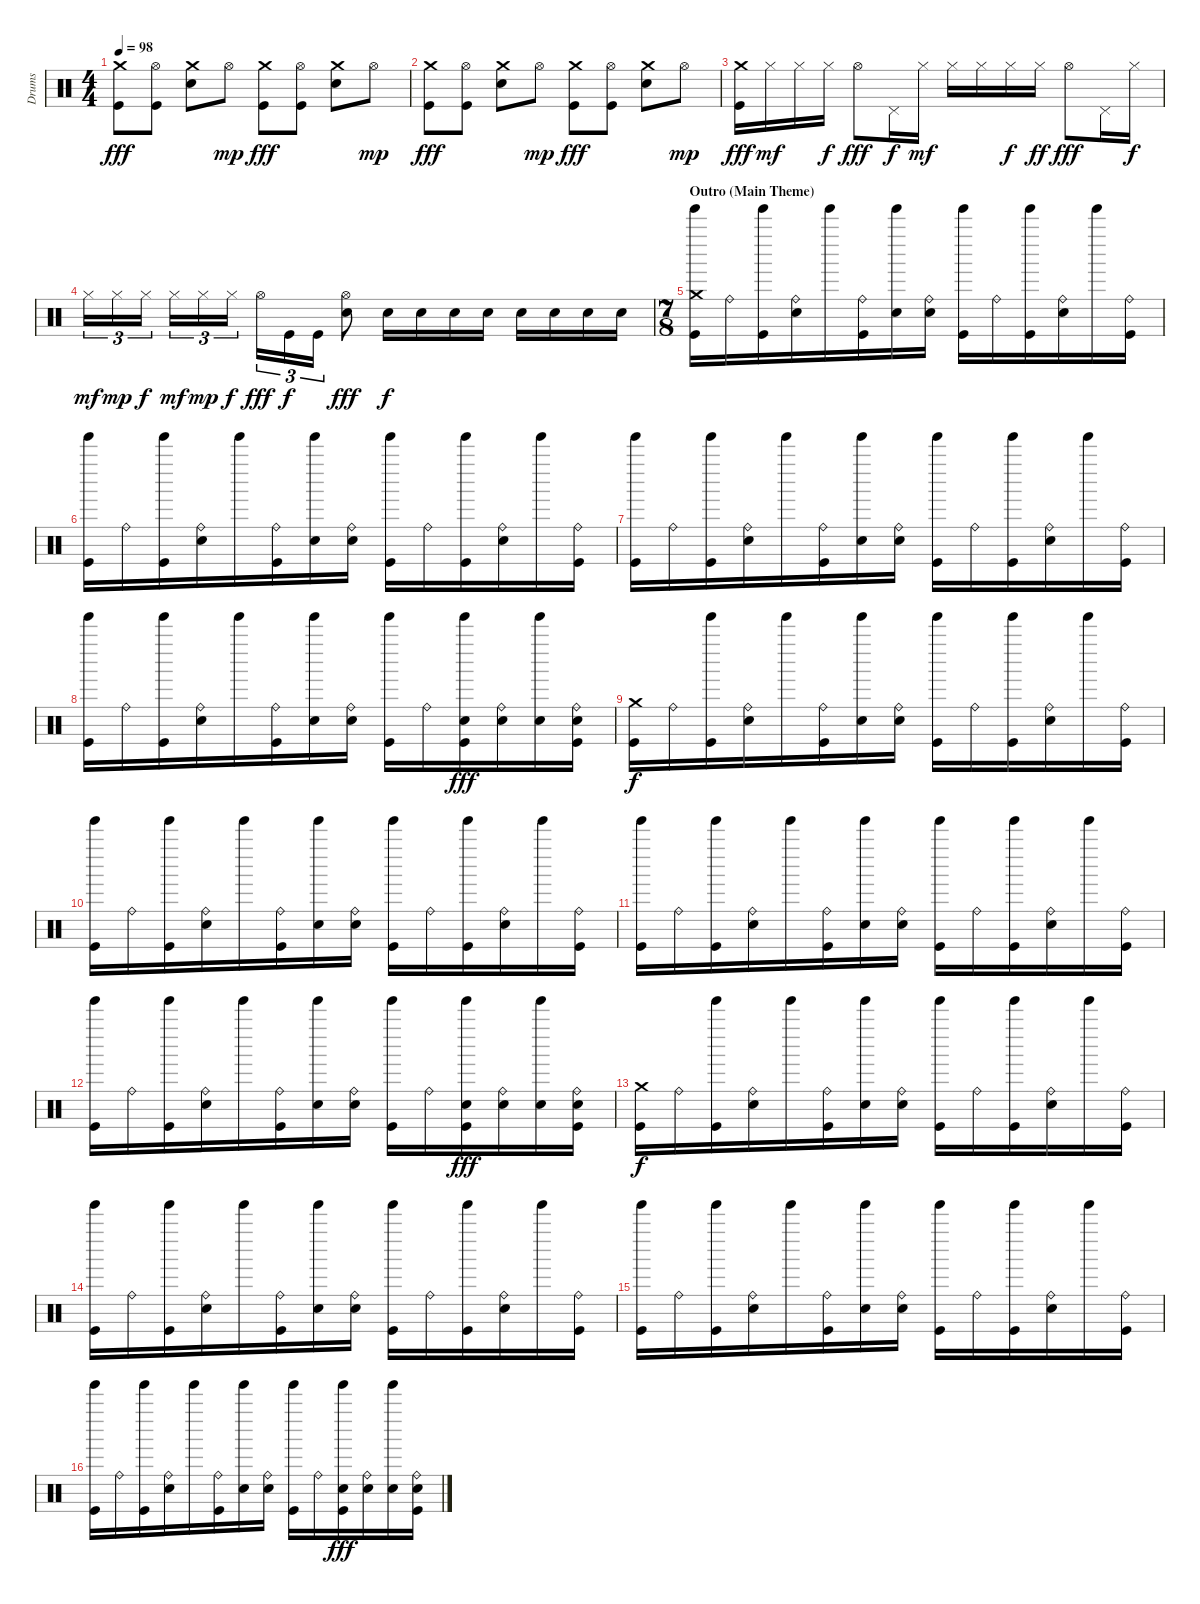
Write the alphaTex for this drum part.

\track ("Drums" "Drums") {instrument percussion}
\staff {score}
\articulation defaults
\ts (4 4)
\tempo 98
\clef neutral
\ks c
("Crash medium (hit)" "Kick (hit)").8{dy fff} ("Hi-Hat (open)" "Kick (hit)").8 ("Crash medium (hit)" "Snare (hit) 2").8 "Hi-Hat (open)".8{dy mp} ("Crash medium (hit)" "Kick (hit)").8{dy fff} ("Hi-Hat (open)" "Kick (hit)").8 ("Crash medium (hit)" "Snare (hit) 2").8 "Hi-Hat (open)".8{dy mp} |
("Crash medium (hit)" "Kick (hit)").8{dy fff} ("Hi-Hat (open)" "Kick (hit)").8 ("Crash medium (hit)" "Snare (hit) 2").8 "Hi-Hat (open)".8{dy mp} ("Crash medium (hit)" "Kick (hit)").8{dy fff} ("Hi-Hat (open)" "Kick (hit)").8 ("Crash medium (hit)" "Snare (hit) 2").8 "Hi-Hat (open)".8{dy mp} |
("Crash medium (hit)" "Kick (hit)").16{dy fff} "Hi-Hat (closed)".16{dy mf} "Hi-Hat (closed)".16 "Hi-Hat (closed)".16{dy f} "Hi-Hat (open)".8{dy fff} "Pedal Hi-Hat (hit)".16{dy f} "Hi-Hat (closed)".16{dy mf} "Hi-Hat (closed)".16 "Hi-Hat (closed)".16 "Hi-Hat (closed)".16{dy f} "Hi-Hat (closed)".16{dy ff} "Hi-Hat (open)".8{dy fff} "Pedal Hi-Hat (hit)".16 "Hi-Hat (closed)".16{dy f} |
"Hi-Hat (closed)".16{tu (3 2) dy mf} "Hi-Hat (closed)".16{tu (3 2) dy mp} "Hi-Hat (closed)".16{tu (3 2) dy f} "Hi-Hat (closed)".16{tu (3 2) dy mf} "Hi-Hat (closed)".16{tu (3 2) dy mp} "Hi-Hat (closed)".16{tu (3 2) dy f} "Hi-Hat (open)".16{tu (3 2) dy fff} "Kick (hit)".16{tu (3 2) dy f} "Kick (hit)".16{tu (3 2)} ("Hi-Hat (open)" "Electric Snare (hit)").8{dy fff} "Electric Snare (hit)".16{dy f} "Electric Snare (hit)".16 "Electric Snare (hit)".16 "Electric Snare (hit)".16 "Electric Snare (hit)".16 "Electric Snare (hit)".16 "Electric Snare (hit)".16 "Electric Snare (hit)".16 |
\ts (7 8)
\section ("" "Outro (Main Theme)")
("Crash medium (hit)" "Tinkle Bell (hit)" "Kick (hit)").16{volume 14} "Ride (bell)".16 ("Tinkle Bell (hit)" "Kick (hit)").16 ("Ride (bell)" "Electric Snare (hit)").16 "Tinkle Bell (hit)".16 ("Ride (bell)" "Kick (hit)").16 ("Tinkle Bell (hit)" "Electric Snare (hit)").16 ("Ride (bell)" "Electric Snare (hit)").16 ("Tinkle Bell (hit)" "Kick (hit)").16 "Ride (bell)".16 ("Tinkle Bell (hit)" "Kick (hit)").16 ("Ride (bell)" "Electric Snare (hit)").16 "Tinkle Bell (hit)".16 ("Ride (bell)" "Kick (hit)").16 |
("Tinkle Bell (hit)" "Kick (hit)").16 "Ride (bell)".16 ("Tinkle Bell (hit)" "Kick (hit)").16 ("Ride (bell)" "Electric Snare (hit)").16 "Tinkle Bell (hit)".16 ("Ride (bell)" "Kick (hit)").16 ("Tinkle Bell (hit)" "Electric Snare (hit)").16 ("Ride (bell)" "Electric Snare (hit)").16 ("Tinkle Bell (hit)" "Kick (hit)").16 "Ride (bell)".16 ("Tinkle Bell (hit)" "Kick (hit)").16 ("Ride (bell)" "Electric Snare (hit)").16 "Tinkle Bell (hit)".16 ("Ride (bell)" "Kick (hit)").16 |
("Tinkle Bell (hit)" "Kick (hit)").16 "Ride (bell)".16 ("Tinkle Bell (hit)" "Kick (hit)").16 ("Ride (bell)" "Electric Snare (hit)").16 "Tinkle Bell (hit)".16 ("Ride (bell)" "Kick (hit)").16 ("Tinkle Bell (hit)" "Electric Snare (hit)").16 ("Ride (bell)" "Electric Snare (hit)").16 ("Tinkle Bell (hit)" "Kick (hit)").16 "Ride (bell)".16 ("Tinkle Bell (hit)" "Kick (hit)").16 ("Ride (bell)" "Electric Snare (hit)").16 "Tinkle Bell (hit)".16 ("Ride (bell)" "Kick (hit)").16 |
("Tinkle Bell (hit)" "Kick (hit)").16 "Ride (bell)".16 ("Tinkle Bell (hit)" "Kick (hit)").16 ("Ride (bell)" "Electric Snare (hit)").16 "Tinkle Bell (hit)".16 ("Ride (bell)" "Kick (hit)").16 ("Tinkle Bell (hit)" "Electric Snare (hit)").16 ("Ride (bell)" "Electric Snare (hit)").16 ("Tinkle Bell (hit)" "Kick (hit)").16 "Ride (bell)".16 ("Tinkle Bell (hit)" "Electric Snare (hit)" "Kick (hit)").16{dy fff} ("Ride (bell)" "Electric Snare (hit)").16 ("Tinkle Bell (hit)" "Electric Snare (hit)").16 ("Ride (bell)" "Electric Snare (hit)" "Kick (hit)").16 |
("Crash medium (hit)" "Kick (hit)").16{dy f} "Ride (bell)".16 ("Tinkle Bell (hit)" "Kick (hit)").16 ("Ride (bell)" "Electric Snare (hit)").16 "Tinkle Bell (hit)".16 ("Ride (bell)" "Kick (hit)").16 ("Tinkle Bell (hit)" "Electric Snare (hit)").16 ("Ride (bell)" "Electric Snare (hit)").16 ("Tinkle Bell (hit)" "Kick (hit)").16 "Ride (bell)".16 ("Tinkle Bell (hit)" "Kick (hit)").16 ("Ride (bell)" "Electric Snare (hit)").16 "Tinkle Bell (hit)".16 ("Ride (bell)" "Kick (hit)").16 |
("Tinkle Bell (hit)" "Kick (hit)").16 "Ride (bell)".16 ("Tinkle Bell (hit)" "Kick (hit)").16 ("Ride (bell)" "Electric Snare (hit)").16 "Tinkle Bell (hit)".16 ("Ride (bell)" "Kick (hit)").16 ("Tinkle Bell (hit)" "Electric Snare (hit)").16 ("Ride (bell)" "Electric Snare (hit)").16 ("Tinkle Bell (hit)" "Kick (hit)").16 "Ride (bell)".16 ("Tinkle Bell (hit)" "Kick (hit)").16 ("Ride (bell)" "Electric Snare (hit)").16 "Tinkle Bell (hit)".16 ("Ride (bell)" "Kick (hit)").16 |
("Tinkle Bell (hit)" "Kick (hit)").16 "Ride (bell)".16 ("Tinkle Bell (hit)" "Kick (hit)").16 ("Ride (bell)" "Electric Snare (hit)").16 "Tinkle Bell (hit)".16 ("Ride (bell)" "Kick (hit)").16 ("Tinkle Bell (hit)" "Electric Snare (hit)").16 ("Ride (bell)" "Electric Snare (hit)").16 ("Tinkle Bell (hit)" "Kick (hit)").16 "Ride (bell)".16 ("Tinkle Bell (hit)" "Kick (hit)").16 ("Ride (bell)" "Electric Snare (hit)").16 "Tinkle Bell (hit)".16 ("Ride (bell)" "Kick (hit)").16 |
("Tinkle Bell (hit)" "Kick (hit)").16 "Ride (bell)".16 ("Tinkle Bell (hit)" "Kick (hit)").16 ("Ride (bell)" "Electric Snare (hit)").16 "Tinkle Bell (hit)".16 ("Ride (bell)" "Kick (hit)").16 ("Tinkle Bell (hit)" "Electric Snare (hit)").16 ("Ride (bell)" "Electric Snare (hit)").16 ("Tinkle Bell (hit)" "Kick (hit)").16 "Ride (bell)".16 ("Tinkle Bell (hit)" "Electric Snare (hit)" "Kick (hit)").16{dy fff} ("Ride (bell)" "Electric Snare (hit)").16 ("Tinkle Bell (hit)" "Electric Snare (hit)").16 ("Ride (bell)" "Electric Snare (hit)" "Kick (hit)").16 |
("Crash medium (hit)" "Kick (hit)").16{dy f volume 7} "Ride (bell)".16 ("Tinkle Bell (hit)" "Kick (hit)").16 ("Ride (bell)" "Electric Snare (hit)").16 "Tinkle Bell (hit)".16 ("Ride (bell)" "Kick (hit)").16 ("Tinkle Bell (hit)" "Electric Snare (hit)").16 ("Ride (bell)" "Electric Snare (hit)").16 ("Tinkle Bell (hit)" "Kick (hit)").16 "Ride (bell)".16 ("Tinkle Bell (hit)" "Kick (hit)").16 ("Ride (bell)" "Electric Snare (hit)").16 "Tinkle Bell (hit)".16 ("Ride (bell)" "Kick (hit)").16 |
("Tinkle Bell (hit)" "Kick (hit)").16 "Ride (bell)".16 ("Tinkle Bell (hit)" "Kick (hit)").16 ("Ride (bell)" "Electric Snare (hit)").16 "Tinkle Bell (hit)".16 ("Ride (bell)" "Kick (hit)").16 ("Tinkle Bell (hit)" "Electric Snare (hit)").16 ("Ride (bell)" "Electric Snare (hit)").16 ("Tinkle Bell (hit)" "Kick (hit)").16 "Ride (bell)".16 ("Tinkle Bell (hit)" "Kick (hit)").16 ("Ride (bell)" "Electric Snare (hit)").16 "Tinkle Bell (hit)".16 ("Ride (bell)" "Kick (hit)").16 |
("Tinkle Bell (hit)" "Kick (hit)").16 "Ride (bell)".16 ("Tinkle Bell (hit)" "Kick (hit)").16 ("Ride (bell)" "Electric Snare (hit)").16 "Tinkle Bell (hit)".16 ("Ride (bell)" "Kick (hit)").16 ("Tinkle Bell (hit)" "Electric Snare (hit)").16 ("Ride (bell)" "Electric Snare (hit)").16 ("Tinkle Bell (hit)" "Kick (hit)").16 "Ride (bell)".16 ("Tinkle Bell (hit)" "Kick (hit)").16 ("Ride (bell)" "Electric Snare (hit)").16 "Tinkle Bell (hit)".16 ("Ride (bell)" "Kick (hit)").16 |
("Tinkle Bell (hit)" "Kick (hit)").16 "Ride (bell)".16 ("Tinkle Bell (hit)" "Kick (hit)").16 ("Ride (bell)" "Electric Snare (hit)").16 "Tinkle Bell (hit)".16 ("Ride (bell)" "Kick (hit)").16 ("Tinkle Bell (hit)" "Electric Snare (hit)").16 ("Ride (bell)" "Electric Snare (hit)").16 ("Tinkle Bell (hit)" "Kick (hit)").16 "Ride (bell)".16 ("Tinkle Bell (hit)" "Electric Snare (hit)" "Kick (hit)").16{dy fff} ("Ride (bell)" "Electric Snare (hit)").16 ("Tinkle Bell (hit)" "Electric Snare (hit)").16 ("Ride (bell)" "Electric Snare (hit)" "Kick (hit)").16
